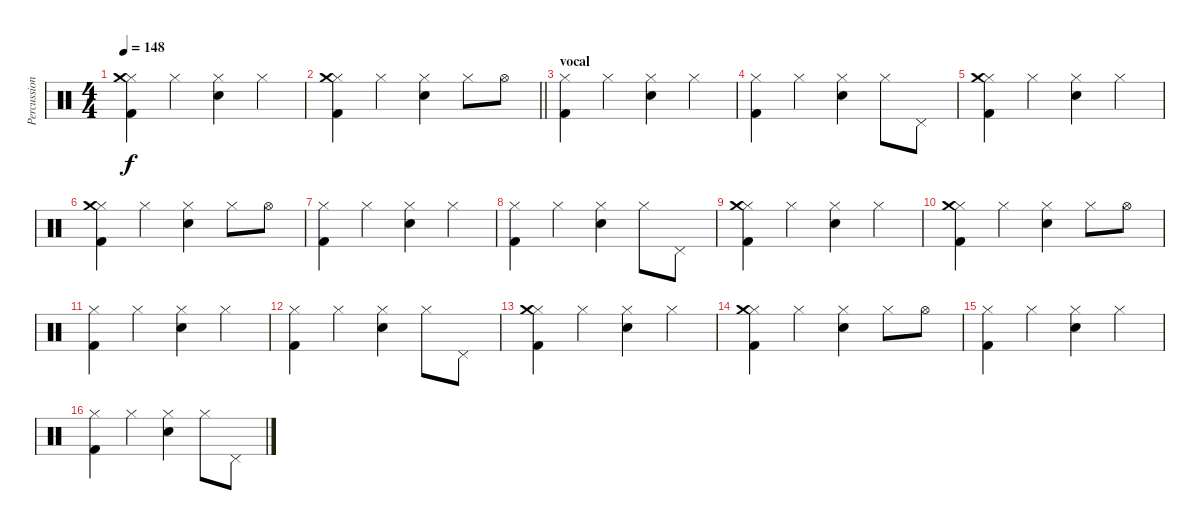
\track ("Percussions" "Percussion") {instrument percussion}
\staff {score}
\articulation defaults
\ts (4 4)
\tempo 148
\clef neutral
\ks c
("Hi-Hat (closed)" "Kick (hit) 2" "Crash medium (hit)").4{dy f} "Hi-Hat (closed)".4 ("Hi-Hat (closed)" "Snare (hit) 2").4 "Hi-Hat (closed)".4 |
\barLineRight lightlight
("Hi-Hat (closed)" "Kick (hit) 2" "Crash medium (hit)").4 "Hi-Hat (closed)".4 ("Hi-Hat (closed)" "Snare (hit) 2").4 "Hi-Hat (closed)".8 "Hi-Hat (open)".8 |
\section ("" "vocal")
("Hi-Hat (closed)" "Kick (hit) 2").4 "Hi-Hat (closed)".4 ("Hi-Hat (closed)" "Snare (hit) 2").4 "Hi-Hat (closed)".4 |
("Hi-Hat (closed)" "Kick (hit) 2").4 "Hi-Hat (closed)".4 ("Hi-Hat (closed)" "Snare (hit) 2").4 "Hi-Hat (closed)".8 "Pedal Hi-Hat (hit)".8 |
("Hi-Hat (closed)" "Kick (hit) 2" "Crash medium (hit)").4 "Hi-Hat (closed)".4 ("Hi-Hat (closed)" "Snare (hit) 2").4 "Hi-Hat (closed)".4 |
("Hi-Hat (closed)" "Kick (hit) 2" "Crash medium (hit)").4 "Hi-Hat (closed)".4 ("Hi-Hat (closed)" "Snare (hit) 2").4 "Hi-Hat (closed)".8 "Hi-Hat (open)".8 |
("Hi-Hat (closed)" "Kick (hit) 2").4 "Hi-Hat (closed)".4 ("Hi-Hat (closed)" "Snare (hit) 2").4 "Hi-Hat (closed)".4 |
("Hi-Hat (closed)" "Kick (hit) 2").4 "Hi-Hat (closed)".4 ("Hi-Hat (closed)" "Snare (hit) 2").4 "Hi-Hat (closed)".8 "Pedal Hi-Hat (hit)".8 |
("Hi-Hat (closed)" "Kick (hit) 2" "Crash medium (hit)").4 "Hi-Hat (closed)".4 ("Hi-Hat (closed)" "Snare (hit) 2").4 "Hi-Hat (closed)".4 |
("Hi-Hat (closed)" "Kick (hit) 2" "Crash medium (hit)").4 "Hi-Hat (closed)".4 ("Hi-Hat (closed)" "Snare (hit) 2").4 "Hi-Hat (closed)".8 "Hi-Hat (open)".8 |
("Hi-Hat (closed)" "Kick (hit) 2").4 "Hi-Hat (closed)".4 ("Hi-Hat (closed)" "Snare (hit) 2").4 "Hi-Hat (closed)".4 |
("Hi-Hat (closed)" "Kick (hit) 2").4 "Hi-Hat (closed)".4 ("Hi-Hat (closed)" "Snare (hit) 2").4 "Hi-Hat (closed)".8 "Pedal Hi-Hat (hit)".8 |
("Hi-Hat (closed)" "Kick (hit) 2" "Crash medium (hit)").4 "Hi-Hat (closed)".4 ("Hi-Hat (closed)" "Snare (hit) 2").4 "Hi-Hat (closed)".4 |
("Hi-Hat (closed)" "Kick (hit) 2" "Crash medium (hit)").4 "Hi-Hat (closed)".4 ("Hi-Hat (closed)" "Snare (hit) 2").4 "Hi-Hat (closed)".8 "Hi-Hat (open)".8 |
("Hi-Hat (closed)" "Kick (hit) 2").4 "Hi-Hat (closed)".4 ("Hi-Hat (closed)" "Snare (hit) 2").4 "Hi-Hat (closed)".4 |
("Hi-Hat (closed)" "Kick (hit) 2").4 "Hi-Hat (closed)".4 ("Hi-Hat (closed)" "Snare (hit) 2").4 "Hi-Hat (closed)".8 "Pedal Hi-Hat (hit)".8
